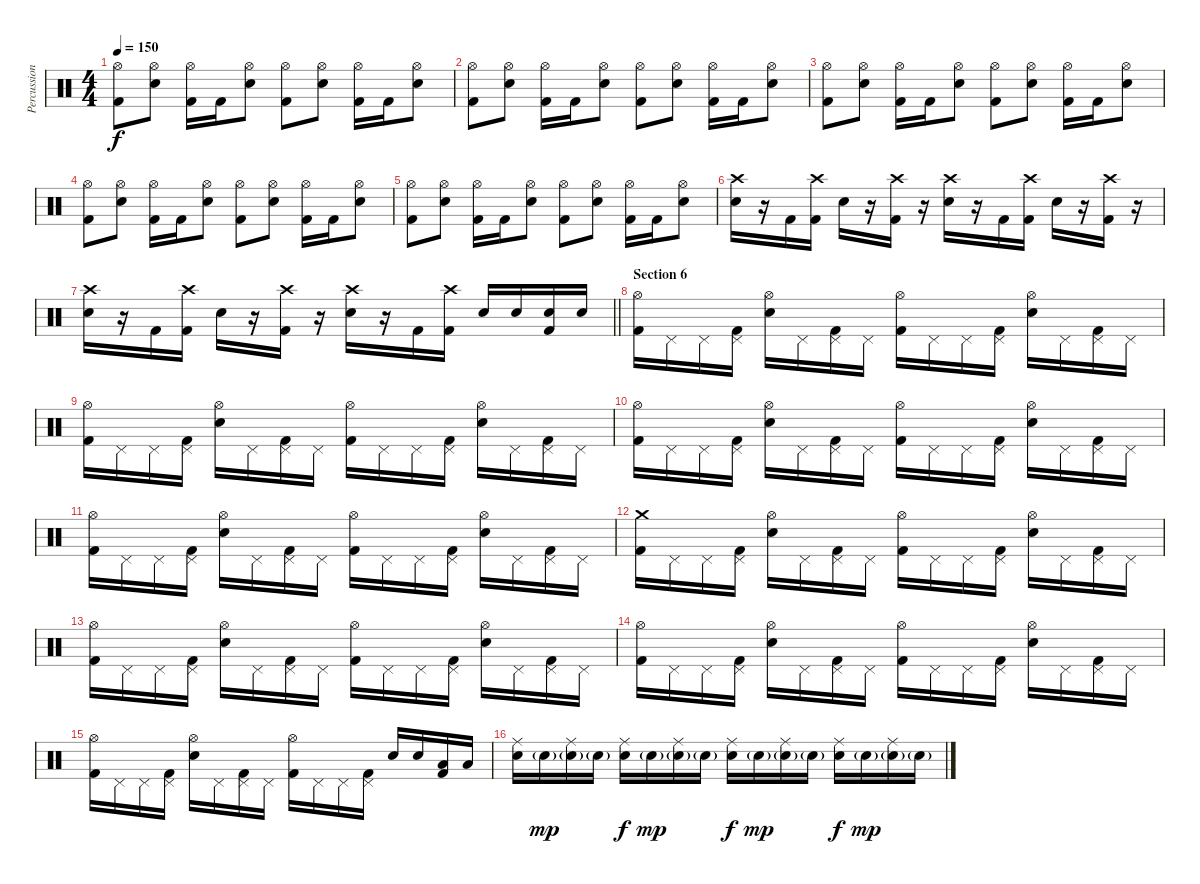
\track ("Percussion" "Percussion") {instrument percussion}
\staff {score}
\articulation defaults
\ts (4 4)
\tempo 150
\clef neutral
\ks c
("Hi-Hat (open)" "Kick (hit) 2").8{dy f} ("Hi-Hat (open)" "Snare (hit) 2").8 ("Hi-Hat (open)" "Kick (hit) 2").16 "Kick (hit) 2".16 ("Hi-Hat (open)" "Snare (hit) 2").8 ("Hi-Hat (open)" "Kick (hit) 2").8 ("Hi-Hat (open)" "Snare (hit) 2").8 ("Hi-Hat (open)" "Kick (hit) 2").16 "Kick (hit) 2".16 ("Hi-Hat (open)" "Snare (hit) 2").8 |
("Hi-Hat (open)" "Kick (hit) 2").8 ("Hi-Hat (open)" "Snare (hit) 2").8 ("Hi-Hat (open)" "Kick (hit) 2").16 "Kick (hit) 2".16 ("Hi-Hat (open)" "Snare (hit) 2").8 ("Hi-Hat (open)" "Kick (hit) 2").8 ("Hi-Hat (open)" "Snare (hit) 2").8 ("Hi-Hat (open)" "Kick (hit) 2").16 "Kick (hit) 2".16 ("Hi-Hat (open)" "Snare (hit) 2").8 |
("Hi-Hat (open)" "Kick (hit) 2").8 ("Hi-Hat (open)" "Snare (hit) 2").8 ("Hi-Hat (open)" "Kick (hit) 2").16 "Kick (hit) 2".16 ("Hi-Hat (open)" "Snare (hit) 2").8 ("Hi-Hat (open)" "Kick (hit) 2").8 ("Hi-Hat (open)" "Snare (hit) 2").8 ("Hi-Hat (open)" "Kick (hit) 2").16 "Kick (hit) 2".16 ("Hi-Hat (open)" "Snare (hit) 2").8 |
("Hi-Hat (open)" "Kick (hit) 2").8 ("Hi-Hat (open)" "Snare (hit) 2").8 ("Hi-Hat (open)" "Kick (hit) 2").16 "Kick (hit) 2".16 ("Hi-Hat (open)" "Snare (hit) 2").8 ("Hi-Hat (open)" "Kick (hit) 2").8 ("Hi-Hat (open)" "Snare (hit) 2").8 ("Hi-Hat (open)" "Kick (hit) 2").16 "Kick (hit) 2".16 ("Hi-Hat (open)" "Snare (hit) 2").8 |
("Hi-Hat (open)" "Kick (hit) 2").8 ("Hi-Hat (open)" "Snare (hit) 2").8 ("Hi-Hat (open)" "Kick (hit) 2").16 "Kick (hit) 2".16 ("Hi-Hat (open)" "Snare (hit) 2").8 ("Hi-Hat (open)" "Kick (hit) 2").8 ("Hi-Hat (open)" "Snare (hit) 2").8 ("Hi-Hat (open)" "Kick (hit) 2").16 "Kick (hit) 2".16 ("Hi-Hat (open)" "Snare (hit) 2").8 |
("Crash high (hit)" "Snare (hit) 2").16 r.16 "Kick (hit) 2".16 ("Crash high (hit)" "Kick (hit) 2").16 "Snare (hit) 2".16 r.16 ("Crash high (hit)" "Kick (hit) 2").16 r.16 ("Crash high (hit)" "Snare (hit) 2").16 r.16 "Kick (hit) 2".16 ("Crash high (hit)" "Kick (hit) 2").16 "Snare (hit) 2".16 r.16 ("Crash high (hit)" "Kick (hit) 2").16 r.16 |
\barLineRight lightlight
("Crash high (hit)" "Snare (hit) 2").16 r.16 "Kick (hit) 2".16 ("Crash high (hit)" "Kick (hit) 2").16 "Snare (hit) 2".16 r.16 ("Crash high (hit)" "Kick (hit) 2").16 r.16 ("Crash high (hit)" "Snare (hit) 2").16 r.16 "Kick (hit) 2".16 ("Crash high (hit)" "Kick (hit) 2").16 "Snare (hit) 2".16 "Snare (hit) 2".16 ("Snare (hit) 2" "Kick (hit) 2").16 "Snare (hit) 2".16 |
\section ("" "Section 6")
("Hi-Hat (open)" "Kick (hit) 2").16 "Pedal Hi-Hat (hit)".16 "Pedal Hi-Hat (hit)".16 ("Pedal Hi-Hat (hit)" "Kick (hit) 2").16 ("Hi-Hat (open)" "Snare (hit) 2").16 "Pedal Hi-Hat (hit)".16 ("Pedal Hi-Hat (hit)" "Kick (hit) 2").16 "Pedal Hi-Hat (hit)".16 ("Hi-Hat (open)" "Kick (hit) 2").16 "Pedal Hi-Hat (hit)".16 "Pedal Hi-Hat (hit)".16 ("Pedal Hi-Hat (hit)" "Kick (hit) 2").16 ("Hi-Hat (open)" "Snare (hit) 2").16 "Pedal Hi-Hat (hit)".16 ("Pedal Hi-Hat (hit)" "Kick (hit) 2").16 "Pedal Hi-Hat (hit)".16 |
("Hi-Hat (open)" "Kick (hit) 2").16 "Pedal Hi-Hat (hit)".16 "Pedal Hi-Hat (hit)".16 ("Pedal Hi-Hat (hit)" "Kick (hit) 2").16 ("Hi-Hat (open)" "Snare (hit) 2").16 "Pedal Hi-Hat (hit)".16 ("Pedal Hi-Hat (hit)" "Kick (hit) 2").16 "Pedal Hi-Hat (hit)".16 ("Hi-Hat (open)" "Kick (hit) 2").16 "Pedal Hi-Hat (hit)".16 "Pedal Hi-Hat (hit)".16 ("Pedal Hi-Hat (hit)" "Kick (hit) 2").16 ("Hi-Hat (open)" "Snare (hit) 2").16 "Pedal Hi-Hat (hit)".16 ("Pedal Hi-Hat (hit)" "Kick (hit) 2").16 "Pedal Hi-Hat (hit)".16 |
("Hi-Hat (open)" "Kick (hit) 2").16 "Pedal Hi-Hat (hit)".16 "Pedal Hi-Hat (hit)".16 ("Pedal Hi-Hat (hit)" "Kick (hit) 2").16 ("Hi-Hat (open)" "Snare (hit) 2").16 "Pedal Hi-Hat (hit)".16 ("Pedal Hi-Hat (hit)" "Kick (hit) 2").16 "Pedal Hi-Hat (hit)".16 ("Hi-Hat (open)" "Kick (hit) 2").16 "Pedal Hi-Hat (hit)".16 "Pedal Hi-Hat (hit)".16 ("Pedal Hi-Hat (hit)" "Kick (hit) 2").16 ("Hi-Hat (open)" "Snare (hit) 2").16 "Pedal Hi-Hat (hit)".16 ("Pedal Hi-Hat (hit)" "Kick (hit) 2").16 "Pedal Hi-Hat (hit)".16 |
("Hi-Hat (open)" "Kick (hit) 2").16 "Pedal Hi-Hat (hit)".16 "Pedal Hi-Hat (hit)".16 ("Pedal Hi-Hat (hit)" "Kick (hit) 2").16 ("Hi-Hat (open)" "Snare (hit) 2").16 "Pedal Hi-Hat (hit)".16 ("Pedal Hi-Hat (hit)" "Kick (hit) 2").16 "Pedal Hi-Hat (hit)".16 ("Hi-Hat (open)" "Kick (hit) 2").16 "Pedal Hi-Hat (hit)".16 "Pedal Hi-Hat (hit)".16 ("Pedal Hi-Hat (hit)" "Kick (hit) 2").16 ("Hi-Hat (open)" "Snare (hit) 2").16 "Pedal Hi-Hat (hit)".16 ("Pedal Hi-Hat (hit)" "Kick (hit) 2").16 "Pedal Hi-Hat (hit)".16 |
("Crash medium (hit)" "Kick (hit) 2").16 "Pedal Hi-Hat (hit)".16 "Pedal Hi-Hat (hit)".16 ("Pedal Hi-Hat (hit)" "Kick (hit) 2").16 ("Hi-Hat (open)" "Snare (hit) 2").16 "Pedal Hi-Hat (hit)".16 ("Pedal Hi-Hat (hit)" "Kick (hit) 2").16 "Pedal Hi-Hat (hit)".16 ("Hi-Hat (open)" "Kick (hit) 2").16 "Pedal Hi-Hat (hit)".16 "Pedal Hi-Hat (hit)".16 ("Pedal Hi-Hat (hit)" "Kick (hit) 2").16 ("Hi-Hat (open)" "Snare (hit) 2").16 "Pedal Hi-Hat (hit)".16 ("Pedal Hi-Hat (hit)" "Kick (hit) 2").16 "Pedal Hi-Hat (hit)".16 |
("Hi-Hat (open)" "Kick (hit) 2").16 "Pedal Hi-Hat (hit)".16 "Pedal Hi-Hat (hit)".16 ("Pedal Hi-Hat (hit)" "Kick (hit) 2").16 ("Hi-Hat (open)" "Snare (hit) 2").16 "Pedal Hi-Hat (hit)".16 ("Pedal Hi-Hat (hit)" "Kick (hit) 2").16 "Pedal Hi-Hat (hit)".16 ("Hi-Hat (open)" "Kick (hit) 2").16 "Pedal Hi-Hat (hit)".16 "Pedal Hi-Hat (hit)".16 ("Pedal Hi-Hat (hit)" "Kick (hit) 2").16 ("Hi-Hat (open)" "Snare (hit) 2").16 "Pedal Hi-Hat (hit)".16 ("Pedal Hi-Hat (hit)" "Kick (hit) 2").16 "Pedal Hi-Hat (hit)".16 |
("Hi-Hat (open)" "Kick (hit) 2").16 "Pedal Hi-Hat (hit)".16 "Pedal Hi-Hat (hit)".16 ("Pedal Hi-Hat (hit)" "Kick (hit) 2").16 ("Hi-Hat (open)" "Snare (hit) 2").16 "Pedal Hi-Hat (hit)".16 ("Pedal Hi-Hat (hit)" "Kick (hit) 2").16 "Pedal Hi-Hat (hit)".16 ("Hi-Hat (open)" "Kick (hit) 2").16 "Pedal Hi-Hat (hit)".16 "Pedal Hi-Hat (hit)".16 ("Pedal Hi-Hat (hit)" "Kick (hit) 2").16 ("Hi-Hat (open)" "Snare (hit) 2").16 "Pedal Hi-Hat (hit)".16 ("Pedal Hi-Hat (hit)" "Kick (hit) 2").16 "Pedal Hi-Hat (hit)".16 |
("Hi-Hat (open)" "Kick (hit) 2").16 "Pedal Hi-Hat (hit)".16 "Pedal Hi-Hat (hit)".16 ("Pedal Hi-Hat (hit)" "Kick (hit) 2").16 ("Hi-Hat (open)" "Snare (hit) 2").16 "Pedal Hi-Hat (hit)".16 ("Pedal Hi-Hat (hit)" "Kick (hit) 2").16 "Pedal Hi-Hat (hit)".16 ("Hi-Hat (open)" "Kick (hit) 2").16 "Pedal Hi-Hat (hit)".16 "Pedal Hi-Hat (hit)".16 ("Pedal Hi-Hat (hit)" "Kick (hit) 2").16 "Snare (hit) 2".16 "Snare (hit) 2".16 ("Low Tom (hit)" "Kick (hit) 2").16 "Low Tom (hit)".16 |
("Ride (middle)" "Snare (hit) 2").16 "Snare (hit) 2"{g}.16{dy mp} ("Ride (middle)" "Snare (hit) 2"{g}).16 "Snare (hit) 2"{g}.16 ("Ride (middle)" "Snare (hit) 2").16{dy f} "Snare (hit) 2"{g}.16{dy mp} ("Ride (middle)" "Snare (hit) 2"{g}).16 "Snare (hit) 2"{g}.16 ("Ride (middle)" "Snare (hit) 2").16{dy f} "Snare (hit) 2"{g}.16{dy mp} ("Ride (middle)" "Snare (hit) 2"{g}).16 "Snare (hit) 2"{g}.16 ("Ride (middle)" "Snare (hit) 2").16{dy f} "Snare (hit) 2"{g}.16{dy mp} ("Ride (middle)" "Snare (hit) 2"{g}).16 "Snare (hit) 2"{g}.16
